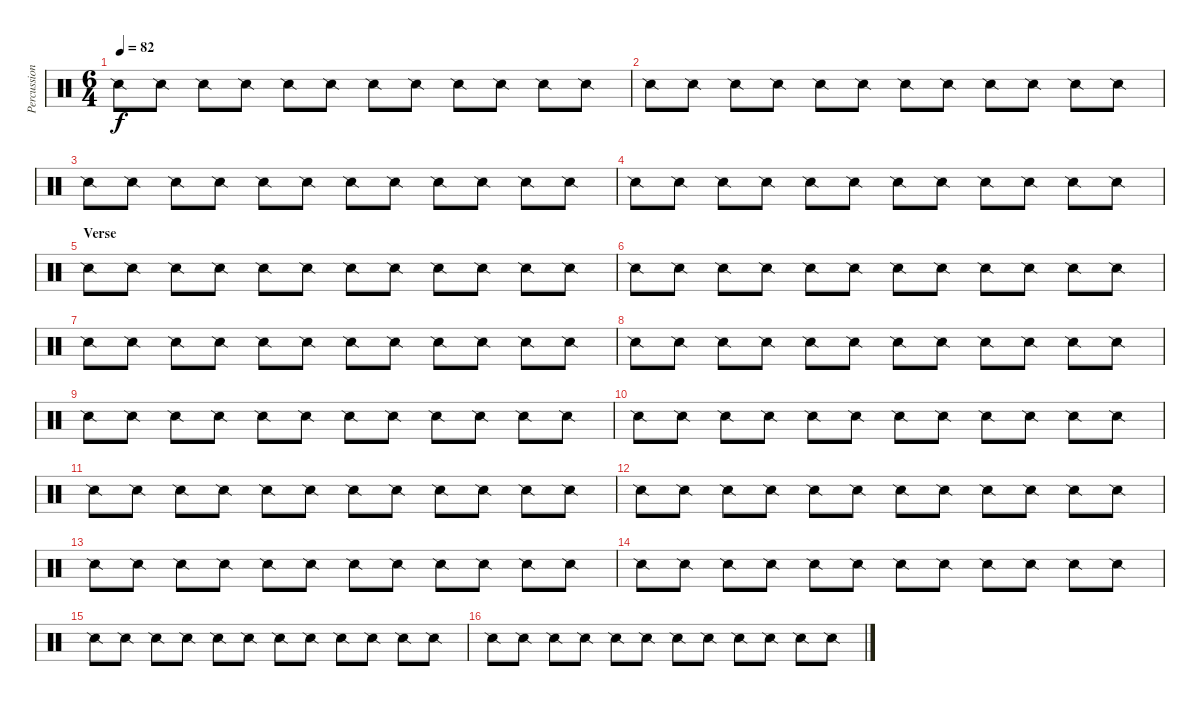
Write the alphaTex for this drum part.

\track ("Percussion" "Percussion") {instrument percussion}
\staff {score}
\articulation defaults
\ts (6 4)
\tempo 82
\clef neutral
\ks c "Snare (side stick) 2".8{dy f} "Snare (side stick) 2".8 "Snare (side stick) 2".8 "Snare (side stick) 2".8 "Snare (side stick) 2".8 "Snare (side stick) 2".8 "Snare (side stick) 2".8 "Snare (side stick) 2".8 "Snare (side stick) 2".8 "Snare (side stick) 2".8 "Snare (side stick) 2".8 "Snare (side stick) 2".8
|
"Snare (side stick) 2".8 "Snare (side stick) 2".8 "Snare (side stick) 2".8 "Snare (side stick) 2".8 "Snare (side stick) 2".8 "Snare (side stick) 2".8 "Snare (side stick) 2".8 "Snare (side stick) 2".8 "Snare (side stick) 2".8 "Snare (side stick) 2".8 "Snare (side stick) 2".8 "Snare (side stick) 2".8 |
"Snare (side stick) 2".8 "Snare (side stick) 2".8 "Snare (side stick) 2".8 "Snare (side stick) 2".8 "Snare (side stick) 2".8 "Snare (side stick) 2".8 "Snare (side stick) 2".8 "Snare (side stick) 2".8 "Snare (side stick) 2".8 "Snare (side stick) 2".8 "Snare (side stick) 2".8 "Snare (side stick) 2".8 |
"Snare (side stick) 2".8 "Snare (side stick) 2".8 "Snare (side stick) 2".8 "Snare (side stick) 2".8 "Snare (side stick) 2".8 "Snare (side stick) 2".8 "Snare (side stick) 2".8 "Snare (side stick) 2".8 "Snare (side stick) 2".8 "Snare (side stick) 2".8 "Snare (side stick) 2".8 "Snare (side stick) 2".8 |
\section ("" "Verse")
"Snare (side stick) 2".8 "Snare (side stick) 2".8 "Snare (side stick) 2".8 "Snare (side stick) 2".8 "Snare (side stick) 2".8 "Snare (side stick) 2".8 "Snare (side stick) 2".8 "Snare (side stick) 2".8 "Snare (side stick) 2".8 "Snare (side stick) 2".8 "Snare (side stick) 2".8 "Snare (side stick) 2".8 |
"Snare (side stick) 2".8 "Snare (side stick) 2".8 "Snare (side stick) 2".8 "Snare (side stick) 2".8 "Snare (side stick) 2".8 "Snare (side stick) 2".8 "Snare (side stick) 2".8 "Snare (side stick) 2".8 "Snare (side stick) 2".8 "Snare (side stick) 2".8 "Snare (side stick) 2".8 "Snare (side stick) 2".8 |
"Snare (side stick) 2".8 "Snare (side stick) 2".8 "Snare (side stick) 2".8 "Snare (side stick) 2".8 "Snare (side stick) 2".8 "Snare (side stick) 2".8 "Snare (side stick) 2".8 "Snare (side stick) 2".8 "Snare (side stick) 2".8 "Snare (side stick) 2".8 "Snare (side stick) 2".8 "Snare (side stick) 2".8 |
"Snare (side stick) 2".8 "Snare (side stick) 2".8 "Snare (side stick) 2".8 "Snare (side stick) 2".8 "Snare (side stick) 2".8 "Snare (side stick) 2".8 "Snare (side stick) 2".8 "Snare (side stick) 2".8 "Snare (side stick) 2".8 "Snare (side stick) 2".8 "Snare (side stick) 2".8 "Snare (side stick) 2".8 |
"Snare (side stick) 2".8 "Snare (side stick) 2".8 "Snare (side stick) 2".8 "Snare (side stick) 2".8 "Snare (side stick) 2".8 "Snare (side stick) 2".8 "Snare (side stick) 2".8 "Snare (side stick) 2".8 "Snare (side stick) 2".8 "Snare (side stick) 2".8 "Snare (side stick) 2".8 "Snare (side stick) 2".8 |
"Snare (side stick) 2".8 "Snare (side stick) 2".8 "Snare (side stick) 2".8 "Snare (side stick) 2".8 "Snare (side stick) 2".8 "Snare (side stick) 2".8 "Snare (side stick) 2".8 "Snare (side stick) 2".8 "Snare (side stick) 2".8 "Snare (side stick) 2".8 "Snare (side stick) 2".8 "Snare (side stick) 2".8 |
"Snare (side stick) 2".8 "Snare (side stick) 2".8 "Snare (side stick) 2".8 "Snare (side stick) 2".8 "Snare (side stick) 2".8 "Snare (side stick) 2".8 "Snare (side stick) 2".8 "Snare (side stick) 2".8 "Snare (side stick) 2".8 "Snare (side stick) 2".8 "Snare (side stick) 2".8 "Snare (side stick) 2".8 |
"Snare (side stick) 2".8 "Snare (side stick) 2".8 "Snare (side stick) 2".8 "Snare (side stick) 2".8 "Snare (side stick) 2".8 "Snare (side stick) 2".8 "Snare (side stick) 2".8 "Snare (side stick) 2".8 "Snare (side stick) 2".8 "Snare (side stick) 2".8 "Snare (side stick) 2".8 "Snare (side stick) 2".8 |
"Snare (side stick) 2".8 "Snare (side stick) 2".8 "Snare (side stick) 2".8 "Snare (side stick) 2".8 "Snare (side stick) 2".8 "Snare (side stick) 2".8 "Snare (side stick) 2".8 "Snare (side stick) 2".8 "Snare (side stick) 2".8 "Snare (side stick) 2".8 "Snare (side stick) 2".8 "Snare (side stick) 2".8 |
"Snare (side stick) 2".8 "Snare (side stick) 2".8 "Snare (side stick) 2".8 "Snare (side stick) 2".8 "Snare (side stick) 2".8 "Snare (side stick) 2".8 "Snare (side stick) 2".8 "Snare (side stick) 2".8 "Snare (side stick) 2".8 "Snare (side stick) 2".8 "Snare (side stick) 2".8 "Snare (side stick) 2".8 |
"Snare (side stick) 2".8 "Snare (side stick) 2".8 "Snare (side stick) 2".8 "Snare (side stick) 2".8 "Snare (side stick) 2".8 "Snare (side stick) 2".8 "Snare (side stick) 2".8 "Snare (side stick) 2".8 "Snare (side stick) 2".8 "Snare (side stick) 2".8 "Snare (side stick) 2".8 "Snare (side stick) 2".8 |
"Snare (side stick) 2".8 "Snare (side stick) 2".8 "Snare (side stick) 2".8 "Snare (side stick) 2".8 "Snare (side stick) 2".8 "Snare (side stick) 2".8 "Snare (side stick) 2".8 "Snare (side stick) 2".8 "Snare (side stick) 2".8 "Snare (side stick) 2".8 "Snare (side stick) 2".8 "Snare (side stick) 2".8
